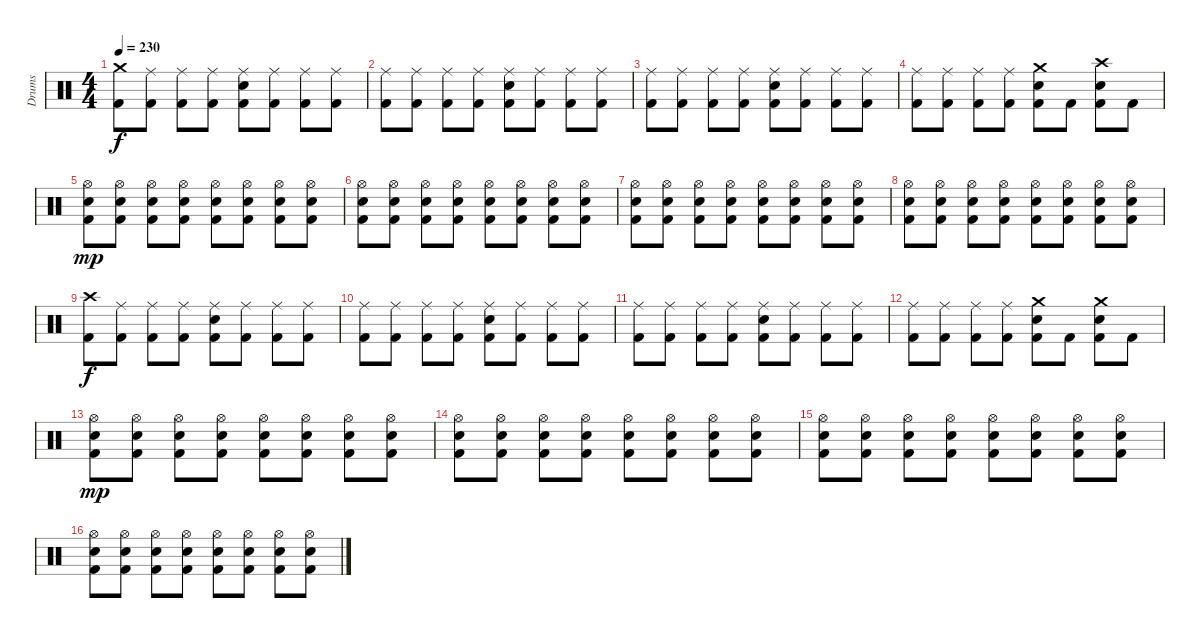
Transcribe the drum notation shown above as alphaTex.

\track ("Drums" "Drums") {instrument percussion}
\staff {score}
\articulation defaults
\ts (4 4)
\tempo 230
\clef neutral
\ks c
("Crash medium (hit)" "Kick (hit) 2").8{dy f} ("Ride (middle)" "Kick (hit) 2").8 ("Ride (middle)" "Kick (hit) 2").8 ("Ride (middle)" "Kick (hit) 2").8 ("Ride (middle)" "Electric Snare (hit)" "Kick (hit) 2").8 ("Ride (middle)" "Kick (hit) 2").8 ("Ride (middle)" "Kick (hit) 2").8 ("Ride (middle)" "Kick (hit) 2").8 |
("Ride (middle)" "Kick (hit) 2").8 ("Ride (middle)" "Kick (hit) 2").8 ("Ride (middle)" "Kick (hit) 2").8 ("Ride (middle)" "Kick (hit) 2").8 ("Ride (middle)" "Electric Snare (hit)" "Kick (hit) 2").8 ("Ride (middle)" "Kick (hit) 2").8 ("Ride (middle)" "Kick (hit) 2").8 ("Ride (middle)" "Kick (hit) 2").8 |
("Ride (middle)" "Kick (hit) 2").8 ("Ride (middle)" "Kick (hit) 2").8 ("Ride (middle)" "Kick (hit) 2").8 ("Ride (middle)" "Kick (hit) 2").8 ("Ride (middle)" "Electric Snare (hit)" "Kick (hit) 2").8 ("Ride (middle)" "Kick (hit) 2").8 ("Ride (middle)" "Kick (hit) 2").8 ("Ride (middle)" "Kick (hit) 2").8 |
("Ride (middle)" "Kick (hit) 2").8 ("Ride (middle)" "Kick (hit) 2").8 ("Ride (middle)" "Kick (hit) 2").8 ("Ride (middle)" "Kick (hit) 2").8 ("Crash medium (hit)" "Electric Snare (hit)" "Kick (hit) 2").8 "Kick (hit) 2".8 ("Crash high (hit)" "Electric Snare (hit)" "Kick (hit) 2").8 "Kick (hit) 2".8 |
("Hi-Hat (open)" "Electric Snare (hit)" "Kick (hit) 2").8{dy mp} ("Hi-Hat (open)" "Electric Snare (hit)" "Kick (hit) 2").8 ("Hi-Hat (open)" "Electric Snare (hit)" "Kick (hit) 2").8 ("Hi-Hat (open)" "Electric Snare (hit)" "Kick (hit) 2").8 ("Hi-Hat (open)" "Electric Snare (hit)" "Kick (hit) 2").8 ("Hi-Hat (open)" "Electric Snare (hit)" "Kick (hit) 2").8 ("Hi-Hat (open)" "Electric Snare (hit)" "Kick (hit) 2").8 ("Hi-Hat (open)" "Electric Snare (hit)" "Kick (hit) 2").8 |
("Hi-Hat (open)" "Electric Snare (hit)" "Kick (hit) 2").8 ("Hi-Hat (open)" "Electric Snare (hit)" "Kick (hit) 2").8 ("Hi-Hat (open)" "Electric Snare (hit)" "Kick (hit) 2").8 ("Hi-Hat (open)" "Electric Snare (hit)" "Kick (hit) 2").8 ("Hi-Hat (open)" "Electric Snare (hit)" "Kick (hit) 2").8 ("Hi-Hat (open)" "Electric Snare (hit)" "Kick (hit) 2").8 ("Hi-Hat (open)" "Electric Snare (hit)" "Kick (hit) 2").8 ("Hi-Hat (open)" "Electric Snare (hit)" "Kick (hit) 2").8 |
("Hi-Hat (open)" "Electric Snare (hit)" "Kick (hit) 2").8 ("Hi-Hat (open)" "Electric Snare (hit)" "Kick (hit) 2").8 ("Hi-Hat (open)" "Electric Snare (hit)" "Kick (hit) 2").8 ("Hi-Hat (open)" "Electric Snare (hit)" "Kick (hit) 2").8 ("Hi-Hat (open)" "Electric Snare (hit)" "Kick (hit) 2").8 ("Hi-Hat (open)" "Electric Snare (hit)" "Kick (hit) 2").8 ("Hi-Hat (open)" "Electric Snare (hit)" "Kick (hit) 2").8 ("Hi-Hat (open)" "Electric Snare (hit)" "Kick (hit) 2").8 |
("Hi-Hat (open)" "Electric Snare (hit)" "Kick (hit) 2").8 ("Hi-Hat (open)" "Electric Snare (hit)" "Kick (hit) 2").8 ("Hi-Hat (open)" "Electric Snare (hit)" "Kick (hit) 2").8 ("Hi-Hat (open)" "Electric Snare (hit)" "Kick (hit) 2").8 ("Hi-Hat (open)" "Electric Snare (hit)" "Kick (hit) 2").8 ("Hi-Hat (open)" "Electric Snare (hit)" "Kick (hit) 2").8 ("Hi-Hat (open)" "Electric Snare (hit)" "Kick (hit) 2").8 ("Hi-Hat (open)" "Electric Snare (hit)" "Kick (hit) 2").8 |
("Crash high (hit)" "Kick (hit) 2").8{dy f} ("Ride (middle)" "Kick (hit) 2").8 ("Ride (middle)" "Kick (hit) 2").8 ("Ride (middle)" "Kick (hit) 2").8 ("Ride (middle)" "Electric Snare (hit)" "Kick (hit) 2").8 ("Ride (middle)" "Kick (hit) 2").8 ("Ride (middle)" "Kick (hit) 2").8 ("Ride (middle)" "Kick (hit) 2").8 |
("Ride (middle)" "Kick (hit) 2").8 ("Ride (middle)" "Kick (hit) 2").8 ("Ride (middle)" "Kick (hit) 2").8 ("Ride (middle)" "Kick (hit) 2").8 ("Ride (middle)" "Electric Snare (hit)" "Kick (hit) 2").8 ("Ride (middle)" "Kick (hit) 2").8 ("Ride (middle)" "Kick (hit) 2").8 ("Ride (middle)" "Kick (hit) 2").8 |
("Ride (middle)" "Kick (hit) 2").8 ("Ride (middle)" "Kick (hit) 2").8 ("Ride (middle)" "Kick (hit) 2").8 ("Ride (middle)" "Kick (hit) 2").8 ("Ride (middle)" "Electric Snare (hit)" "Kick (hit) 2").8 ("Ride (middle)" "Kick (hit) 2").8 ("Ride (middle)" "Kick (hit) 2").8 ("Ride (middle)" "Kick (hit) 2").8 |
("Ride (middle)" "Kick (hit) 2").8 ("Ride (middle)" "Kick (hit) 2").8 ("Ride (middle)" "Kick (hit) 2").8 ("Ride (middle)" "Kick (hit) 2").8 ("Crash medium (hit)" "Electric Snare (hit)" "Kick (hit) 2").8 "Kick (hit) 2".8 ("Crash medium (hit)" "Electric Snare (hit)" "Kick (hit) 2").8 "Kick (hit) 2".8 |
("Hi-Hat (open)" "Electric Snare (hit)" "Kick (hit) 2").8{dy mp} ("Hi-Hat (open)" "Electric Snare (hit)" "Kick (hit) 2").8 ("Hi-Hat (open)" "Electric Snare (hit)" "Kick (hit) 2").8 ("Hi-Hat (open)" "Electric Snare (hit)" "Kick (hit) 2").8 ("Hi-Hat (open)" "Electric Snare (hit)" "Kick (hit) 2").8 ("Hi-Hat (open)" "Electric Snare (hit)" "Kick (hit) 2").8 ("Hi-Hat (open)" "Electric Snare (hit)" "Kick (hit) 2").8 ("Hi-Hat (open)" "Electric Snare (hit)" "Kick (hit) 2").8 |
("Hi-Hat (open)" "Electric Snare (hit)" "Kick (hit) 2").8 ("Hi-Hat (open)" "Electric Snare (hit)" "Kick (hit) 2").8 ("Hi-Hat (open)" "Electric Snare (hit)" "Kick (hit) 2").8 ("Hi-Hat (open)" "Electric Snare (hit)" "Kick (hit) 2").8 ("Hi-Hat (open)" "Electric Snare (hit)" "Kick (hit) 2").8 ("Hi-Hat (open)" "Electric Snare (hit)" "Kick (hit) 2").8 ("Hi-Hat (open)" "Electric Snare (hit)" "Kick (hit) 2").8 ("Hi-Hat (open)" "Electric Snare (hit)" "Kick (hit) 2").8 |
("Hi-Hat (open)" "Electric Snare (hit)" "Kick (hit) 2").8 ("Hi-Hat (open)" "Electric Snare (hit)" "Kick (hit) 2").8 ("Hi-Hat (open)" "Electric Snare (hit)" "Kick (hit) 2").8 ("Hi-Hat (open)" "Electric Snare (hit)" "Kick (hit) 2").8 ("Hi-Hat (open)" "Electric Snare (hit)" "Kick (hit) 2").8 ("Hi-Hat (open)" "Electric Snare (hit)" "Kick (hit) 2").8 ("Hi-Hat (open)" "Electric Snare (hit)" "Kick (hit) 2").8 ("Hi-Hat (open)" "Electric Snare (hit)" "Kick (hit) 2").8 |
("Hi-Hat (open)" "Electric Snare (hit)" "Kick (hit) 2").8 ("Hi-Hat (open)" "Electric Snare (hit)" "Kick (hit) 2").8 ("Hi-Hat (open)" "Electric Snare (hit)" "Kick (hit) 2").8 ("Hi-Hat (open)" "Electric Snare (hit)" "Kick (hit) 2").8 ("Hi-Hat (open)" "Electric Snare (hit)" "Kick (hit) 2").8 ("Hi-Hat (open)" "Electric Snare (hit)" "Kick (hit) 2").8 ("Hi-Hat (open)" "Electric Snare (hit)" "Kick (hit) 2").8 ("Hi-Hat (open)" "Electric Snare (hit)" "Kick (hit) 2").8
